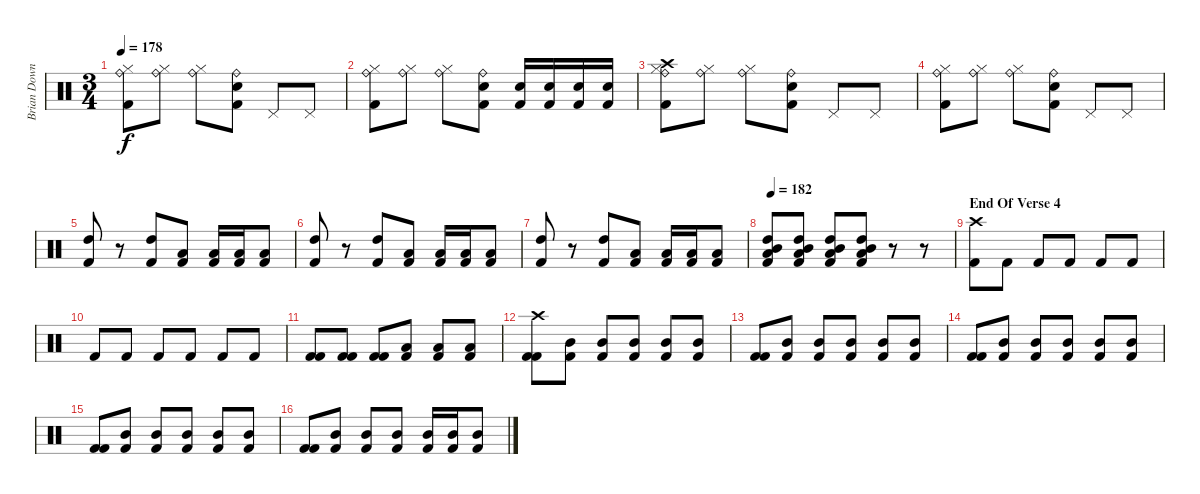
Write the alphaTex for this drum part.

\track ("Brian Downey" "Brian Down") {instrument percussion}
\staff {score}
\articulation defaults
\ts (3 4)
\tempo 178
\clef neutral
\ks c
("Ride (bell)" "Hi-Hat (closed)" "Kick (hit) 2").8{dy f} ("Ride (bell)" "Hi-Hat (closed)").8 ("Ride (bell)" "Hi-Hat (closed)").8 ("Ride (bell)" "Snare (hit) 2" "Kick (hit) 2").8 "Pedal Hi-Hat (hit)".8 "Pedal Hi-Hat (hit)".8 |
("Ride (bell)" "Hi-Hat (closed)" "Kick (hit) 2").8 ("Ride (bell)" "Hi-Hat (closed)").8 ("Ride (bell)" "Hi-Hat (closed)").8 ("Ride (bell)" "Snare (hit) 2" "Kick (hit) 2").8 ("Snare (hit) 2" "Kick (hit) 2").16 ("Snare (hit) 2" "Kick (hit) 2").16 ("Snare (hit) 2" "Kick (hit) 2").16 ("Snare (hit) 2" "Kick (hit) 2").16 |
("Crash high (hit)" "Ride (bell)" "Hi-Hat (closed)" "Kick (hit) 2").8 ("Ride (bell)" "Hi-Hat (closed)").8 ("Ride (bell)" "Hi-Hat (closed)").8 ("Ride (bell)" "Snare (hit) 2" "Kick (hit) 2").8 "Pedal Hi-Hat (hit)".8 "Pedal Hi-Hat (hit)".8 |
("Ride (bell)" "Hi-Hat (closed)" "Kick (hit) 2").8 ("Ride (bell)" "Hi-Hat (closed)").8 ("Ride (bell)" "Hi-Hat (closed)").8 ("Ride (bell)" "Snare (hit) 2" "Kick (hit) 2").8 "Pedal Hi-Hat (hit)".8 "Pedal Hi-Hat (hit)".8 |
("High Tom (hit)" "Kick (hit) 2").8 r.8 ("High Tom (hit)" "Kick (hit) 2").8 ("Low Tom (hit)" "Kick (hit) 2").8 ("Low Tom (hit)" "Kick (hit) 2").16 ("Low Tom (hit)" "Kick (hit) 2").16 ("Low Tom (hit)" "Kick (hit) 2").8 |
("High Tom (hit)" "Kick (hit) 2").8 r.8 ("High Tom (hit)" "Kick (hit) 2").8 ("Low Tom (hit)" "Kick (hit) 2").8 ("Low Tom (hit)" "Kick (hit) 2").16 ("Low Tom (hit)" "Kick (hit) 2").16 ("Low Tom (hit)" "Kick (hit) 2").8 |
("High Tom (hit)" "Kick (hit) 2").8 r.8 ("High Tom (hit)" "Kick (hit) 2").8 ("Low Tom (hit)" "Kick (hit) 2").8 ("Low Tom (hit)" "Kick (hit) 2").16 ("Low Tom (hit)" "Kick (hit) 2").16 ("Low Tom (hit)" "Kick (hit) 2").8 |
\tempo 182
("High Tom (hit)" "Mid Tom (hit)" "Low Tom (hit)" "Kick (hit) 2").8 ("High Tom (hit)" "Mid Tom (hit)" "Low Tom (hit)" "Kick (hit) 2").8 ("High Tom (hit)" "Mid Tom (hit)" "Low Tom (hit)" "Kick (hit) 2").8 ("High Tom (hit)" "Mid Tom (hit)" "Low Tom (hit)" "Kick (hit) 2").8 r.8 r.8 |
\section ("" "End Of Verse 4")
("Crash high (hit)" "Kick (hit) 2").8 "Kick (hit) 2".8 "Kick (hit) 2".8 "Kick (hit) 2".8 "Kick (hit) 2".8 "Kick (hit) 2".8 |
"Kick (hit) 2".8 "Kick (hit) 2".8 "Kick (hit) 2".8 "Kick (hit) 2".8 "Kick (hit) 2".8 "Kick (hit) 2".8 |
("Kick (hit) 2" "Kick (hit) 2").8 ("Kick (hit) 2" "Kick (hit) 2").8 ("Kick (hit) 2" "Kick (hit) 2").8 ("Low Tom (hit)" "Kick (hit) 2").8 ("Low Tom (hit)" "Kick (hit) 2").8 ("Low Tom (hit)" "Kick (hit) 2").8 |
("Crash high (hit)" "Kick (hit) 2" "Kick (hit) 2").8 ("Mid Tom (hit)" "Kick (hit) 2").8 ("Mid Tom (hit)" "Kick (hit) 2").8 ("Mid Tom (hit)" "Kick (hit) 2").8 ("Mid Tom (hit)" "Kick (hit) 2").8 ("Mid Tom (hit)" "Kick (hit) 2").8 |
("Kick (hit) 2" "Kick (hit) 2").8 ("Mid Tom (hit)" "Kick (hit) 2").8 ("Mid Tom (hit)" "Kick (hit) 2").8 ("Mid Tom (hit)" "Kick (hit) 2").8 ("Mid Tom (hit)" "Kick (hit) 2").8 ("Mid Tom (hit)" "Kick (hit) 2").8 |
("Kick (hit) 2" "Kick (hit) 2").8 ("Mid Tom (hit)" "Kick (hit) 2").8 ("Mid Tom (hit)" "Kick (hit) 2").8 ("Mid Tom (hit)" "Kick (hit) 2").8 ("Mid Tom (hit)" "Kick (hit) 2").8 ("Mid Tom (hit)" "Kick (hit) 2").8 |
("Kick (hit) 2" "Kick (hit) 2").8 ("Mid Tom (hit)" "Kick (hit) 2").8 ("Mid Tom (hit)" "Kick (hit) 2").8 ("Mid Tom (hit)" "Kick (hit) 2").8 ("Mid Tom (hit)" "Kick (hit) 2").8 ("Mid Tom (hit)" "Kick (hit) 2").8 |
("Kick (hit) 2" "Kick (hit) 2").8 ("Mid Tom (hit)" "Kick (hit) 2").8 ("Mid Tom (hit)" "Kick (hit) 2").8 ("Mid Tom (hit)" "Kick (hit) 2").8 ("Mid Tom (hit)" "Kick (hit) 2").16 ("Mid Tom (hit)" "Kick (hit) 2").16 ("Mid Tom (hit)" "Kick (hit) 2").8
